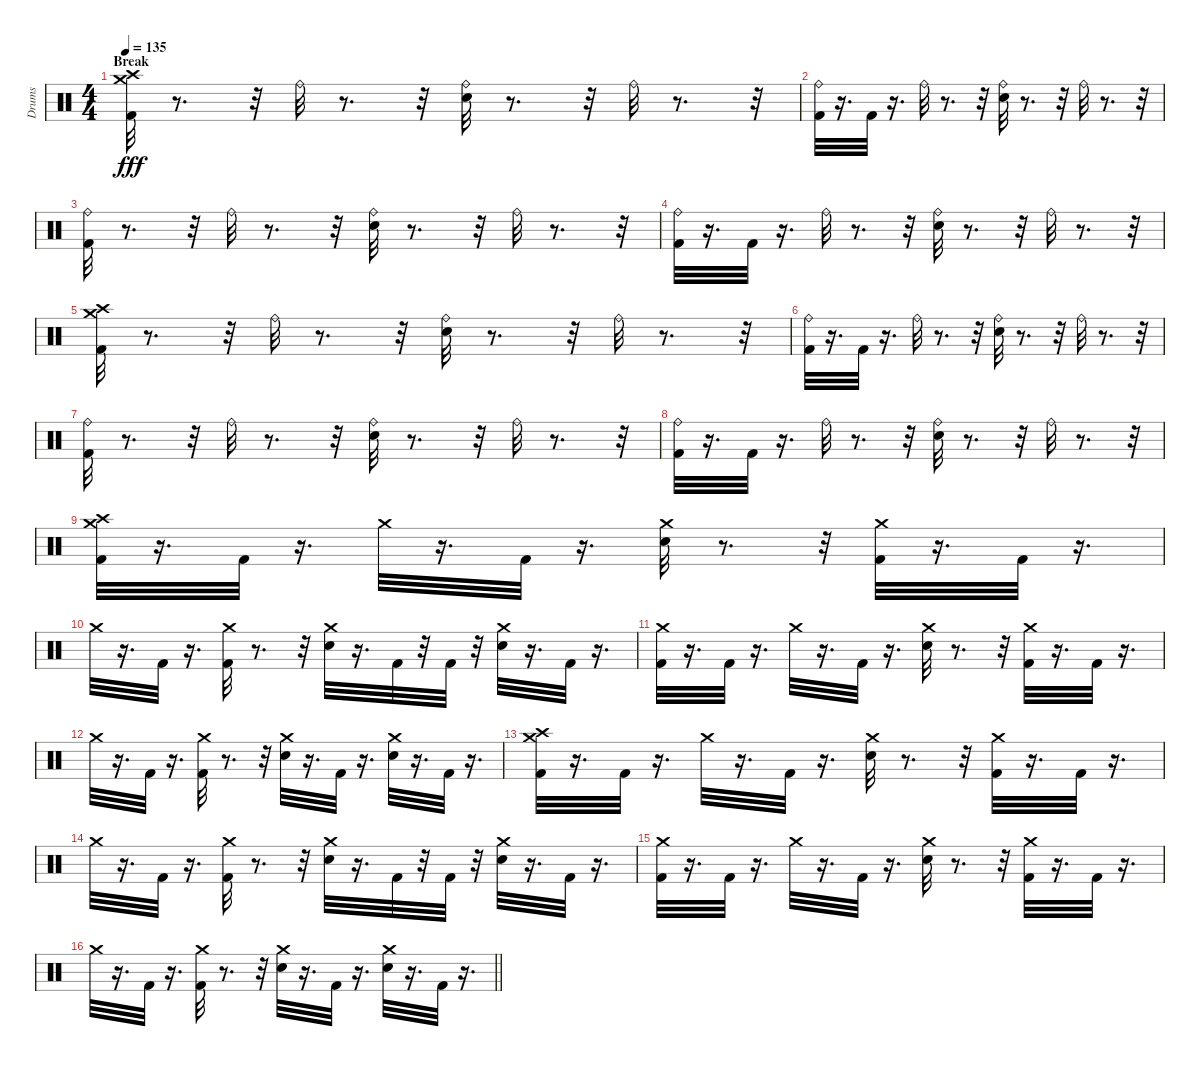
\track ("Drums" "Drums") {instrument percussion}
\staff {score}
\articulation defaults
\ts (4 4)
\section ("" "Break")
\tempo 135
\clef neutral
\ks c
("Crash medium (hit)" "Crash high (hit)" "Kick (hit) 2").32{dy fff} r.8{d} r.32 "Ride (bell)".32 r.8{d} r.32 ("Ride (bell)" "Snare (hit) 2").32 r.8{d} r.32 "Ride (bell)".32 r.8{d} r.32 |
("Ride (bell)" "Kick (hit) 2").32 r.16{d} "Kick (hit) 2".32 r.16{d} "Ride (bell)".32 r.8{d} r.32 ("Ride (bell)" "Snare (hit) 2").32 r.8{d} r.32 "Ride (bell)".32 r.8{d} r.32 |
("Ride (bell)" "Kick (hit) 2").32 r.8{d} r.32 "Ride (bell)".32 r.8{d} r.32 ("Ride (bell)" "Snare (hit) 2").32 r.8{d} r.32 "Ride (bell)".32 r.8{d} r.32 |
("Ride (bell)" "Kick (hit) 2").32 r.16{d} "Kick (hit) 2".32 r.16{d} "Ride (bell)".32 r.8{d} r.32 ("Ride (bell)" "Snare (hit) 2").32 r.8{d} r.32 "Ride (bell)".32 r.8{d} r.32 |
("Crash medium (hit)" "Crash high (hit)" "Kick (hit) 2").32 r.8{d} r.32 "Ride (bell)".32 r.8{d} r.32 ("Ride (bell)" "Snare (hit) 2").32 r.8{d} r.32 "Ride (bell)".32 r.8{d} r.32 |
("Ride (bell)" "Kick (hit) 2").32 r.16{d} "Kick (hit) 2".32 r.16{d} "Ride (bell)".32 r.8{d} r.32 ("Ride (bell)" "Snare (hit) 2").32 r.8{d} r.32 "Ride (bell)".32 r.8{d} r.32 |
("Ride (bell)" "Kick (hit) 2").32 r.8{d} r.32 "Ride (bell)".32 r.8{d} r.32 ("Ride (bell)" "Snare (hit) 2").32 r.8{d} r.32 "Ride (bell)".32 r.8{d} r.32 |
("Ride (bell)" "Kick (hit) 2").32 r.16{d} "Kick (hit) 2".32 r.16{d} "Ride (bell)".32 r.8{d} r.32 ("Ride (bell)" "Snare (hit) 2").32 r.8{d} r.32 "Ride (bell)".32 r.8{d} r.32 |
("Crash medium (hit)" "Crash high (hit)" "Kick (hit) 2").32 r.16{d} "Kick (hit) 2".32 r.16{d} "Crash medium (hit)".32 r.16{d} "Kick (hit) 2".32 r.16{d} ("Crash medium (hit)" "Snare (hit) 2").32 r.8{d} r.32 ("Crash medium (hit)" "Kick (hit) 2").32 r.16{d} "Kick (hit) 2".32 r.16{d} |
"Crash medium (hit)".32 r.16{d} "Kick (hit) 2".32 r.16{d} ("Crash medium (hit)" "Kick (hit) 2").32 r.8{d} r.32 ("Crash medium (hit)" "Snare (hit) 2").32 r.16{d} "Kick (hit) 2".32 r.32 "Kick (hit) 2".32 r.32 ("Snare (hit) 2" "Crash medium (hit)").32 r.16{d} "Kick (hit) 2".32 r.16{d} |
("Crash medium (hit)" "Kick (hit) 2").32 r.16{d} "Kick (hit) 2".32 r.16{d} "Crash medium (hit)".32 r.16{d} "Kick (hit) 2".32 r.16{d} ("Crash medium (hit)" "Snare (hit) 2").32 r.8{d} r.32 ("Kick (hit) 2" "Crash medium (hit)").32 r.16{d} "Kick (hit) 2".32 r.16{d} |
"Crash medium (hit)".32 r.16{d} "Kick (hit) 2".32 r.16{d} ("Kick (hit) 2" "Crash medium (hit)").32 r.8{d} r.32 ("Crash medium (hit)" "Snare (hit) 2").32 r.16{d} "Kick (hit) 2".32 r.16{d} ("Snare (hit) 2" "Crash medium (hit)").32 r.16{d} "Kick (hit) 2".32 r.16{d} |
("Crash medium (hit)" "Crash high (hit)" "Kick (hit) 2").32 r.16{d} "Kick (hit) 2".32 r.16{d} "Crash medium (hit)".32 r.16{d} "Kick (hit) 2".32 r.16{d} ("Crash medium (hit)" "Snare (hit) 2").32 r.8{d} r.32 ("Crash medium (hit)" "Kick (hit) 2").32 r.16{d} "Kick (hit) 2".32 r.16{d} |
"Crash medium (hit)".32 r.16{d} "Kick (hit) 2".32 r.16{d} ("Crash medium (hit)" "Kick (hit) 2").32 r.8{d} r.32 ("Crash medium (hit)" "Snare (hit) 2").32 r.16{d} "Kick (hit) 2".32 r.32 "Kick (hit) 2".32 r.32 ("Snare (hit) 2" "Crash medium (hit)").32 r.16{d} "Kick (hit) 2".32 r.16{d} |
("Crash medium (hit)" "Kick (hit) 2").32 r.16{d} "Kick (hit) 2".32 r.16{d} "Crash medium (hit)".32 r.16{d} "Kick (hit) 2".32 r.16{d} ("Crash medium (hit)" "Snare (hit) 2").32 r.8{d} r.32 ("Kick (hit) 2" "Crash medium (hit)").32 r.16{d} "Kick (hit) 2".32 r.16{d} |
\barLineRight lightlight "Crash medium (hit)".32
r.16{d} "Kick (hit) 2".32 r.16{d} ("Kick (hit) 2" "Crash medium (hit)").32 r.8{d} r.32 ("Crash medium (hit)" "Snare (hit) 2").32 r.16{d} "Kick (hit) 2".32 r.16{d} ("Snare (hit) 2" "Crash medium (hit)").32 r.16{d} "Kick (hit) 2".32 r.16{d}
